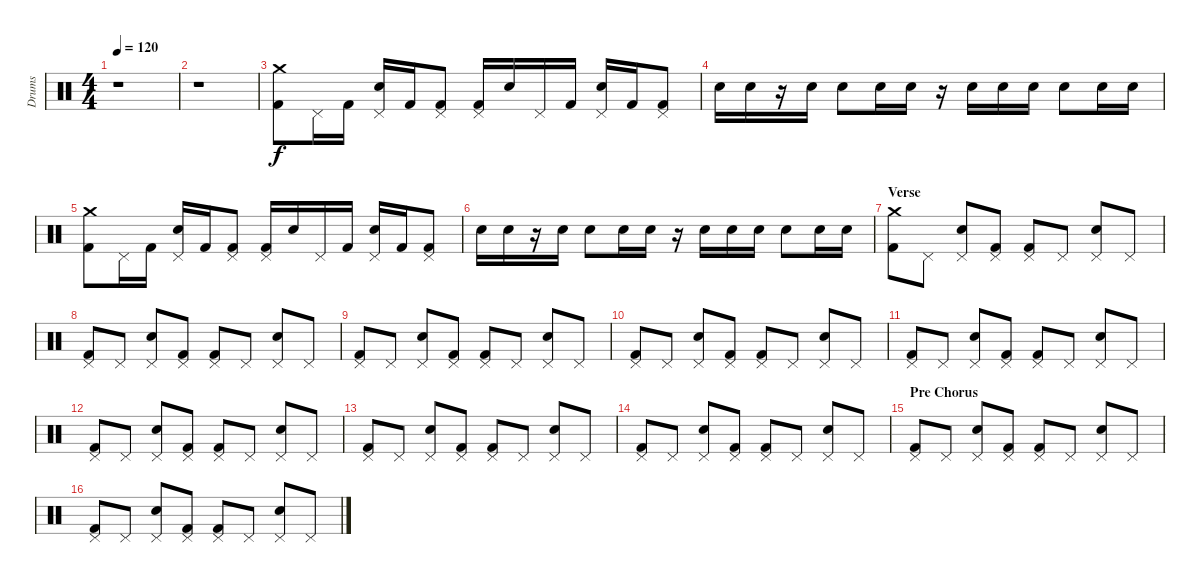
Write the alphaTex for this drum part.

\track ("Drums" "Drums") {instrument percussion}
\staff {score}
\articulation defaults
\ts (4 4)
\tempo 120
\clef neutral
\ks c
r.1{dy mp} |
r.1 |
("Crash medium (hit)" "Kick (hit) 2").8{dy f} "Pedal Hi-Hat (hit)".16 "Kick (hit) 2".16 ("Pedal Hi-Hat (hit)" "Electric Snare (hit)").16 "Kick (hit) 2".16 ("Pedal Hi-Hat (hit)" "Kick (hit) 2").8 ("Pedal Hi-Hat (hit)" "Kick (hit) 2").16 "Electric Snare (hit)".16 "Pedal Hi-Hat (hit)".16 "Kick (hit) 2".16 ("Pedal Hi-Hat (hit)" "Electric Snare (hit)").16 "Kick (hit) 2".16 ("Pedal Hi-Hat (hit)" "Kick (hit) 2").8 |
"Electric Snare (hit)".16 "Electric Snare (hit)".16 r.16 "Electric Snare (hit)".16 "Electric Snare (hit)".8 "Electric Snare (hit)".16 "Electric Snare (hit)".16 r.16 "Electric Snare (hit)".16 "Electric Snare (hit)".16 "Electric Snare (hit)".16 "Electric Snare (hit)".8 "Electric Snare (hit)".16 "Electric Snare (hit)".16 |
("Crash medium (hit)" "Kick (hit) 2").8 "Pedal Hi-Hat (hit)".16 "Kick (hit) 2".16 ("Pedal Hi-Hat (hit)" "Electric Snare (hit)").16 "Kick (hit) 2".16 ("Pedal Hi-Hat (hit)" "Kick (hit) 2").8 ("Pedal Hi-Hat (hit)" "Kick (hit) 2").16 "Electric Snare (hit)".16 "Pedal Hi-Hat (hit)".16 "Kick (hit) 2".16 ("Pedal Hi-Hat (hit)" "Electric Snare (hit)").16 "Kick (hit) 2".16 ("Pedal Hi-Hat (hit)" "Kick (hit) 2").8 |
"Electric Snare (hit)".16 "Electric Snare (hit)".16 r.16 "Electric Snare (hit)".16 "Electric Snare (hit)".8 "Electric Snare (hit)".16 "Electric Snare (hit)".16 r.16 "Electric Snare (hit)".16 "Electric Snare (hit)".16 "Electric Snare (hit)".16 "Electric Snare (hit)".8 "Electric Snare (hit)".16 "Electric Snare (hit)".16 |
\section ("" "Verse")
("Crash medium (hit)" "Kick (hit) 2").8 "Pedal Hi-Hat (hit)".8 ("Pedal Hi-Hat (hit)" "Electric Snare (hit)").8 ("Pedal Hi-Hat (hit)" "Kick (hit) 2").8 ("Pedal Hi-Hat (hit)" "Kick (hit) 2").8 "Pedal Hi-Hat (hit)".8 ("Pedal Hi-Hat (hit)" "Electric Snare (hit)").8 "Pedal Hi-Hat (hit)".8 |
("Pedal Hi-Hat (hit)" "Kick (hit) 2").8 "Pedal Hi-Hat (hit)".8 ("Pedal Hi-Hat (hit)" "Electric Snare (hit)").8 ("Pedal Hi-Hat (hit)" "Kick (hit) 2").8 ("Pedal Hi-Hat (hit)" "Kick (hit) 2").8 "Pedal Hi-Hat (hit)".8 ("Pedal Hi-Hat (hit)" "Electric Snare (hit)").8 "Pedal Hi-Hat (hit)".8 |
("Pedal Hi-Hat (hit)" "Kick (hit) 2").8 "Pedal Hi-Hat (hit)".8 ("Pedal Hi-Hat (hit)" "Electric Snare (hit)").8 ("Pedal Hi-Hat (hit)" "Kick (hit) 2").8 ("Pedal Hi-Hat (hit)" "Kick (hit) 2").8 "Pedal Hi-Hat (hit)".8 ("Pedal Hi-Hat (hit)" "Electric Snare (hit)").8 "Pedal Hi-Hat (hit)".8 |
("Pedal Hi-Hat (hit)" "Kick (hit) 2").8 "Pedal Hi-Hat (hit)".8 ("Pedal Hi-Hat (hit)" "Electric Snare (hit)").8 ("Pedal Hi-Hat (hit)" "Kick (hit) 2").8 ("Pedal Hi-Hat (hit)" "Kick (hit) 2").8 "Pedal Hi-Hat (hit)".8 ("Pedal Hi-Hat (hit)" "Electric Snare (hit)").8 "Pedal Hi-Hat (hit)".8 |
("Pedal Hi-Hat (hit)" "Kick (hit) 2").8 "Pedal Hi-Hat (hit)".8 ("Pedal Hi-Hat (hit)" "Electric Snare (hit)").8 ("Pedal Hi-Hat (hit)" "Kick (hit) 2").8 ("Pedal Hi-Hat (hit)" "Kick (hit) 2").8 "Pedal Hi-Hat (hit)".8 ("Pedal Hi-Hat (hit)" "Electric Snare (hit)").8 "Pedal Hi-Hat (hit)".8 |
("Pedal Hi-Hat (hit)" "Kick (hit) 2").8 "Pedal Hi-Hat (hit)".8 ("Pedal Hi-Hat (hit)" "Electric Snare (hit)").8 ("Pedal Hi-Hat (hit)" "Kick (hit) 2").8 ("Pedal Hi-Hat (hit)" "Kick (hit) 2").8 "Pedal Hi-Hat (hit)".8 ("Pedal Hi-Hat (hit)" "Electric Snare (hit)").8 "Pedal Hi-Hat (hit)".8 |
("Pedal Hi-Hat (hit)" "Kick (hit) 2").8 "Pedal Hi-Hat (hit)".8 ("Pedal Hi-Hat (hit)" "Electric Snare (hit)").8 ("Pedal Hi-Hat (hit)" "Kick (hit) 2").8 ("Pedal Hi-Hat (hit)" "Kick (hit) 2").8 "Pedal Hi-Hat (hit)".8 ("Pedal Hi-Hat (hit)" "Electric Snare (hit)").8 "Pedal Hi-Hat (hit)".8 |
("Pedal Hi-Hat (hit)" "Kick (hit) 2").8 "Pedal Hi-Hat (hit)".8 ("Pedal Hi-Hat (hit)" "Electric Snare (hit)").8 ("Pedal Hi-Hat (hit)" "Kick (hit) 2").8 ("Pedal Hi-Hat (hit)" "Kick (hit) 2").8 "Pedal Hi-Hat (hit)".8 ("Pedal Hi-Hat (hit)" "Electric Snare (hit)").8 "Pedal Hi-Hat (hit)".8 |
\section ("" "Pre Chorus")
("Pedal Hi-Hat (hit)" "Kick (hit) 2").8 "Pedal Hi-Hat (hit)".8 ("Pedal Hi-Hat (hit)" "Electric Snare (hit)").8 ("Pedal Hi-Hat (hit)" "Kick (hit) 2").8 ("Pedal Hi-Hat (hit)" "Kick (hit) 2").8 "Pedal Hi-Hat (hit)".8 ("Pedal Hi-Hat (hit)" "Electric Snare (hit)").8 "Pedal Hi-Hat (hit)".8 |
("Pedal Hi-Hat (hit)" "Kick (hit) 2").8 "Pedal Hi-Hat (hit)".8 ("Pedal Hi-Hat (hit)" "Electric Snare (hit)").8 ("Pedal Hi-Hat (hit)" "Kick (hit) 2").8 ("Pedal Hi-Hat (hit)" "Kick (hit) 2").8 "Pedal Hi-Hat (hit)".8 ("Pedal Hi-Hat (hit)" "Electric Snare (hit)").8 "Pedal Hi-Hat (hit)".8
